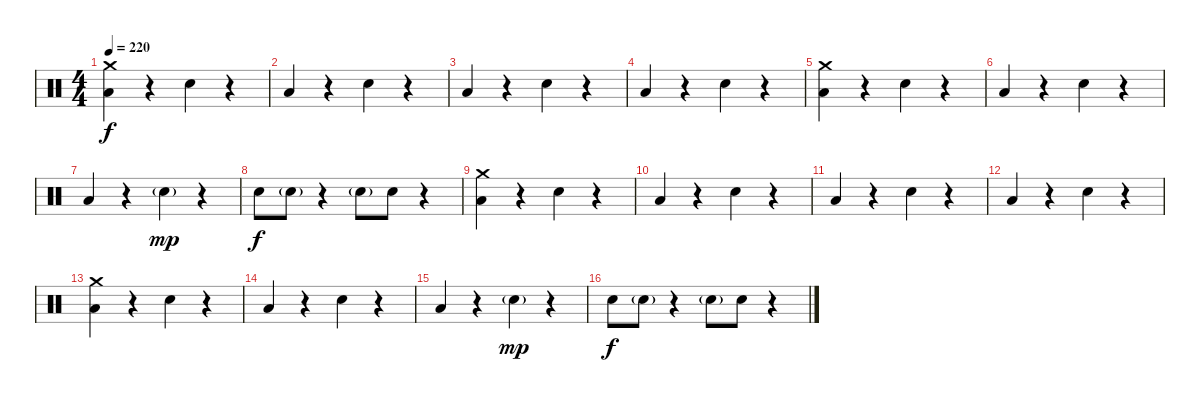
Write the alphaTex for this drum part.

\track "" {instrument percussion}
\staff {score}
\articulation defaults
\ts (4 4)
\tempo 220
\clef neutral
\ks c
("Low Tom (hit)" "Crash medium (hit)").4{dy f} r.4 "Snare (hit) 2".4 r.4 |
"Low Tom (hit)".4 r.4 "Snare (hit) 2".4 r.4 |
"Low Tom (hit)".4 r.4 "Snare (hit) 2".4 r.4 |
"Low Tom (hit)".4 r.4 "Snare (hit) 2".4 r.4 |
("Low Tom (hit)" "Crash medium (hit)").4 r.4 "Snare (hit) 2".4 r.4 |
"Low Tom (hit)".4 r.4 "Snare (hit) 2".4 r.4 |
"Low Tom (hit)".4 r.4 "Snare (hit) 2"{g}.4{dy mp} r.4 |
"Snare (hit) 2".8{dy f} "Snare (hit) 2"{g}.8 r.4 "Snare (hit) 2"{g}.8 "Snare (hit) 2".8 r.4 |
("Low Tom (hit)" "Crash medium (hit)").4 r.4 "Snare (hit) 2".4 r.4 |
"Low Tom (hit)".4 r.4 "Snare (hit) 2".4 r.4 |
"Low Tom (hit)".4 r.4 "Snare (hit) 2".4 r.4 |
"Low Tom (hit)".4 r.4 "Snare (hit) 2".4 r.4 |
("Low Tom (hit)" "Crash medium (hit)").4 r.4 "Snare (hit) 2".4 r.4 |
"Low Tom (hit)".4 r.4 "Snare (hit) 2".4 r.4 |
"Low Tom (hit)".4 r.4 "Snare (hit) 2"{g}.4{dy mp} r.4 |
"Snare (hit) 2".8{dy f} "Snare (hit) 2"{g}.8 r.4 "Snare (hit) 2"{g}.8 "Snare (hit) 2".8 r.4
